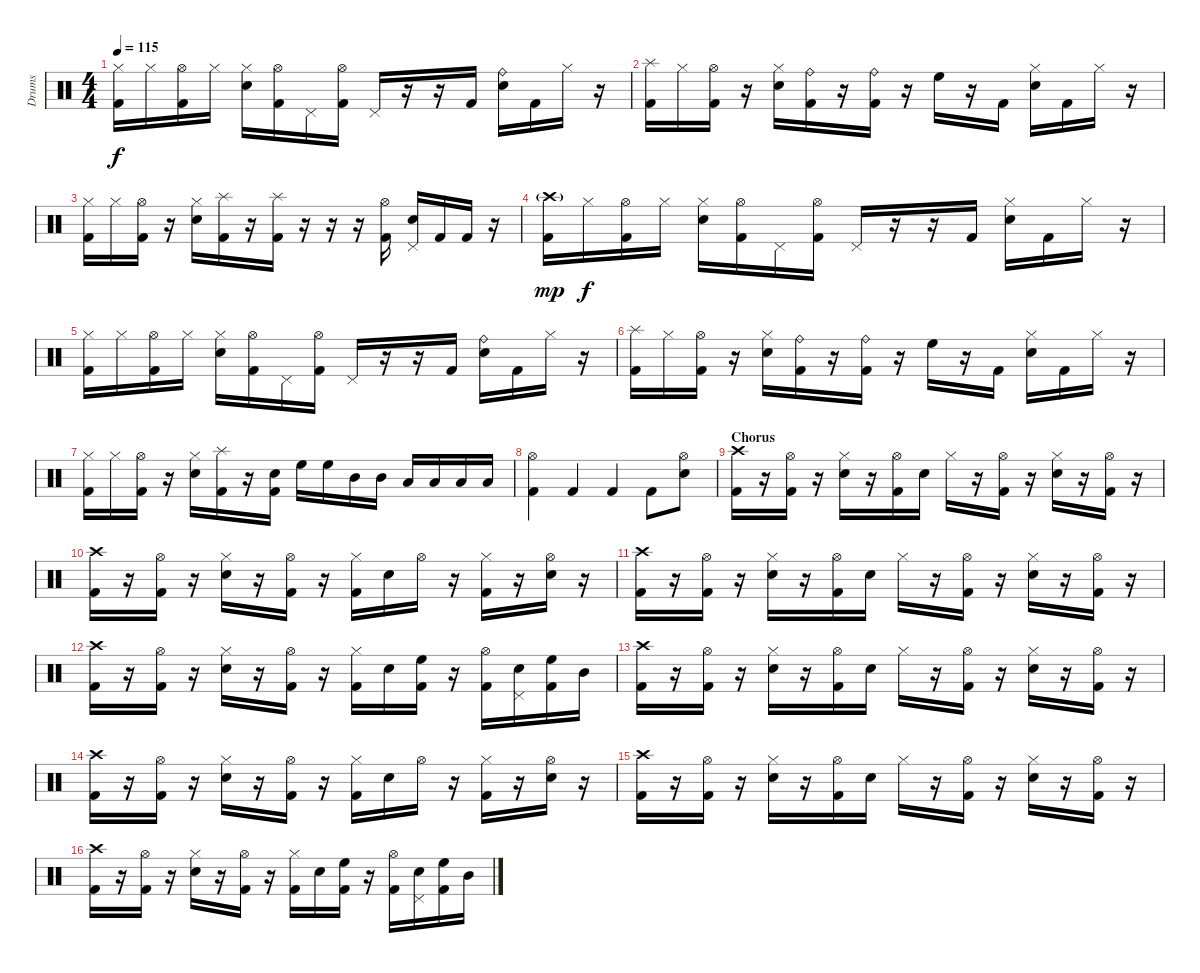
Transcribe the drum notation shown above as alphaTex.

\track ("Drums" "Drums") {instrument percussion}
\staff {score}
\articulation defaults
\ts (4 4)
\tempo 115
\clef neutral
\ks c
("Hi-Hat (closed)" "Kick (hit) 2").16{dy f} "Hi-Hat (closed)".16 ("Hi-Hat (open)" "Kick (hit) 2").16 "Hi-Hat (closed)".16 ("Hi-Hat (closed)" "Electric Snare (hit)").16 ("Hi-Hat (open)" "Kick (hit) 2").16 "Pedal Hi-Hat (hit)".16 ("Hi-Hat (open)" "Kick (hit) 2").16 "Pedal Hi-Hat (hit)".16 r.16 r.16 "Kick (hit) 2".16 ("Ride (bell)" "Electric Snare (hit)").16 "Kick (hit) 2".16 "Hi-Hat (closed)".16 r.16 |
("Splash (hit)" "Kick (hit) 2").16 "Hi-Hat (closed)".16 ("Hi-Hat (open)" "Kick (hit) 2").16 r.16 ("Hi-Hat (closed)" "Electric Snare (hit)").16 ("Ride (bell)" "Kick (hit) 2").16 r.16 ("Ride (bell)" "Kick (hit) 2").16 r.16 "High Floor Tom (hit)".16 r.16 "Kick (hit) 2".16 ("Hi-Hat (closed)" "Electric Snare (hit)").16 "Kick (hit) 2".16 "Hi-Hat (closed)".16 r.16 |
("Hi-Hat (closed)" "Kick (hit) 2").16 "Hi-Hat (closed)".16 ("Hi-Hat (open)" "Kick (hit) 2").16 r.16 ("Hi-Hat (closed)" "Electric Snare (hit)").16 ("Splash (hit)" "Kick (hit) 2").16 r.16 ("Splash (hit)" "Kick (hit) 2").16 r.16 r.16 r.16 ("Hi-Hat (open)" "Kick (hit) 2").16 ("Pedal Hi-Hat (hit)" "Electric Snare (hit)").16 "Kick (hit) 2".16 "Kick (hit) 2".16 r.16 |
("Crash high (hit)"{g} "Kick (hit) 2").16{dy mp} "Hi-Hat (closed)".16{dy f} ("Hi-Hat (open)" "Kick (hit) 2").16 "Hi-Hat (closed)".16 ("Hi-Hat (closed)" "Electric Snare (hit)").16 ("Hi-Hat (open)" "Kick (hit) 2").16 "Pedal Hi-Hat (hit)".16 ("Hi-Hat (open)" "Kick (hit) 2").16 "Pedal Hi-Hat (hit)".16 r.16 r.16 "Kick (hit) 2".16 ("Hi-Hat (closed)" "Electric Snare (hit)").16 "Kick (hit) 2".16 "Hi-Hat (closed)".16 r.16 |
("Hi-Hat (closed)" "Kick (hit) 2").16 "Hi-Hat (closed)".16 ("Hi-Hat (open)" "Kick (hit) 2").16 "Hi-Hat (closed)".16 ("Hi-Hat (closed)" "Electric Snare (hit)").16 ("Hi-Hat (open)" "Kick (hit) 2").16 "Pedal Hi-Hat (hit)".16 ("Hi-Hat (open)" "Kick (hit) 2").16 "Pedal Hi-Hat (hit)".16 r.16 r.16 "Kick (hit) 2".16 ("Ride (bell)" "Electric Snare (hit)").16 "Kick (hit) 2".16 "Hi-Hat (closed)".16 r.16 |
("Splash (hit)" "Kick (hit) 2").16 "Hi-Hat (closed)".16 ("Hi-Hat (open)" "Kick (hit) 2").16 r.16 ("Hi-Hat (closed)" "Electric Snare (hit)").16 ("Ride (bell)" "Kick (hit) 2").16 r.16 ("Ride (bell)" "Kick (hit) 2").16 r.16 "High Floor Tom (hit)".16 r.16 "Kick (hit) 2".16 ("Hi-Hat (closed)" "Electric Snare (hit)").16 "Kick (hit) 2".16 "Hi-Hat (closed)".16 r.16 |
("Hi-Hat (closed)" "Kick (hit) 2").16 "Hi-Hat (closed)".16 ("Hi-Hat (open)" "Kick (hit) 2").16 r.16 ("Hi-Hat (closed)" "Electric Snare (hit)").16 ("Splash (hit)" "Kick (hit) 2").16 r.16 ("Electric Snare (hit)" "Kick (hit) 2").16 "High Floor Tom (hit)".16 "High Floor Tom (hit)".16 "Mid Tom (hit)".16 "Mid Tom (hit)".16 "Low Tom (hit)".16 "Low Tom (hit)".16 "Low Floor Tom (hit)".16 "Low Floor Tom (hit)".16 |
("Hi-Hat (open)" "Kick (hit) 2").4 "Kick (hit) 2".4 "Kick (hit) 2".4 "Kick (hit) 2".8 ("Hi-Hat (open)" "Electric Snare (hit)").8 |
\section ("" "Chorus")
("Crash high (hit)" "Kick (hit) 2").16 r.16 ("Hi-Hat (open)" "Kick (hit) 2").16 r.16 ("Hi-Hat (closed)" "Electric Snare (hit)").16 r.16 ("Hi-Hat (open)" "Kick (hit) 2").16 "Electric Snare (hit)".16 "Hi-Hat (closed)".16 r.16 ("Hi-Hat (open)" "Kick (hit) 2").16 r.16 ("Hi-Hat (closed)" "Electric Snare (hit)").16 r.16 ("Hi-Hat (open)" "Kick (hit) 2").16 r.16 |
("Crash high (hit)" "Kick (hit) 2").16 r.16 ("Hi-Hat (open)" "Kick (hit) 2").16 r.16 ("Hi-Hat (closed)" "Electric Snare (hit)").16 r.16 ("Hi-Hat (open)" "Kick (hit) 2").16 r.16 ("Hi-Hat (closed)" "Kick (hit) 2").16 "Electric Snare (hit)".16 "Hi-Hat (open)".16 r.16 ("Hi-Hat (closed)" "Kick (hit) 2").16 r.16 ("Hi-Hat (open)" "Electric Snare (hit)").16 r.16 |
("Crash high (hit)" "Kick (hit) 2").16 r.16 ("Hi-Hat (open)" "Kick (hit) 2").16 r.16 ("Hi-Hat (closed)" "Electric Snare (hit)").16 r.16 ("Hi-Hat (open)" "Kick (hit) 2").16 "Electric Snare (hit)".16 "Hi-Hat (closed)".16 r.16 ("Hi-Hat (open)" "Kick (hit) 2").16 r.16 ("Hi-Hat (closed)" "Electric Snare (hit)").16 r.16 ("Hi-Hat (open)" "Kick (hit) 2").16 r.16 |
("Crash high (hit)" "Kick (hit) 2").16 r.16 ("Hi-Hat (open)" "Kick (hit) 2").16 r.16 ("Hi-Hat (closed)" "Electric Snare (hit)").16 r.16 ("Hi-Hat (open)" "Kick (hit) 2").16 r.16 ("Hi-Hat (closed)" "Kick (hit) 2").16 "Electric Snare (hit)".16 ("High Floor Tom (hit)" "Kick (hit) 2").16 r.16 ("Hi-Hat (open)" "Kick (hit) 2").16 ("Pedal Hi-Hat (hit)" "Electric Snare (hit)").16 ("High Floor Tom (hit)" "Kick (hit) 2").16 "Mid Tom (hit)".16 |
("Crash high (hit)" "Kick (hit) 2").16 r.16 ("Hi-Hat (open)" "Kick (hit) 2").16 r.16 ("Hi-Hat (closed)" "Electric Snare (hit)").16 r.16 ("Hi-Hat (open)" "Kick (hit) 2").16 "Electric Snare (hit)".16 "Hi-Hat (closed)".16 r.16 ("Hi-Hat (open)" "Kick (hit) 2").16 r.16 ("Hi-Hat (closed)" "Electric Snare (hit)").16 r.16 ("Hi-Hat (open)" "Kick (hit) 2").16 r.16 |
("Crash high (hit)" "Kick (hit) 2").16 r.16 ("Hi-Hat (open)" "Kick (hit) 2").16 r.16 ("Hi-Hat (closed)" "Electric Snare (hit)").16 r.16 ("Hi-Hat (open)" "Kick (hit) 2").16 r.16 ("Hi-Hat (closed)" "Kick (hit) 2").16 "Electric Snare (hit)".16 "Hi-Hat (open)".16 r.16 ("Hi-Hat (closed)" "Kick (hit) 2").16 r.16 ("Hi-Hat (open)" "Electric Snare (hit)").16 r.16 |
("Crash high (hit)" "Kick (hit) 2").16 r.16 ("Hi-Hat (open)" "Kick (hit) 2").16 r.16 ("Hi-Hat (closed)" "Electric Snare (hit)").16 r.16 ("Hi-Hat (open)" "Kick (hit) 2").16 "Electric Snare (hit)".16 "Hi-Hat (closed)".16 r.16 ("Hi-Hat (open)" "Kick (hit) 2").16 r.16 ("Hi-Hat (closed)" "Electric Snare (hit)").16 r.16 ("Hi-Hat (open)" "Kick (hit) 2").16 r.16 |
("Crash high (hit)" "Kick (hit) 2").16 r.16 ("Hi-Hat (open)" "Kick (hit) 2").16 r.16 ("Hi-Hat (closed)" "Electric Snare (hit)").16 r.16 ("Hi-Hat (open)" "Kick (hit) 2").16 r.16 ("Hi-Hat (closed)" "Kick (hit) 2").16 "Electric Snare (hit)".16 ("High Floor Tom (hit)" "Kick (hit) 2").16 r.16 ("Hi-Hat (open)" "Kick (hit) 2").16 ("Pedal Hi-Hat (hit)" "Electric Snare (hit)").16 ("High Floor Tom (hit)" "Kick (hit) 2").16 "Mid Tom (hit)".16
